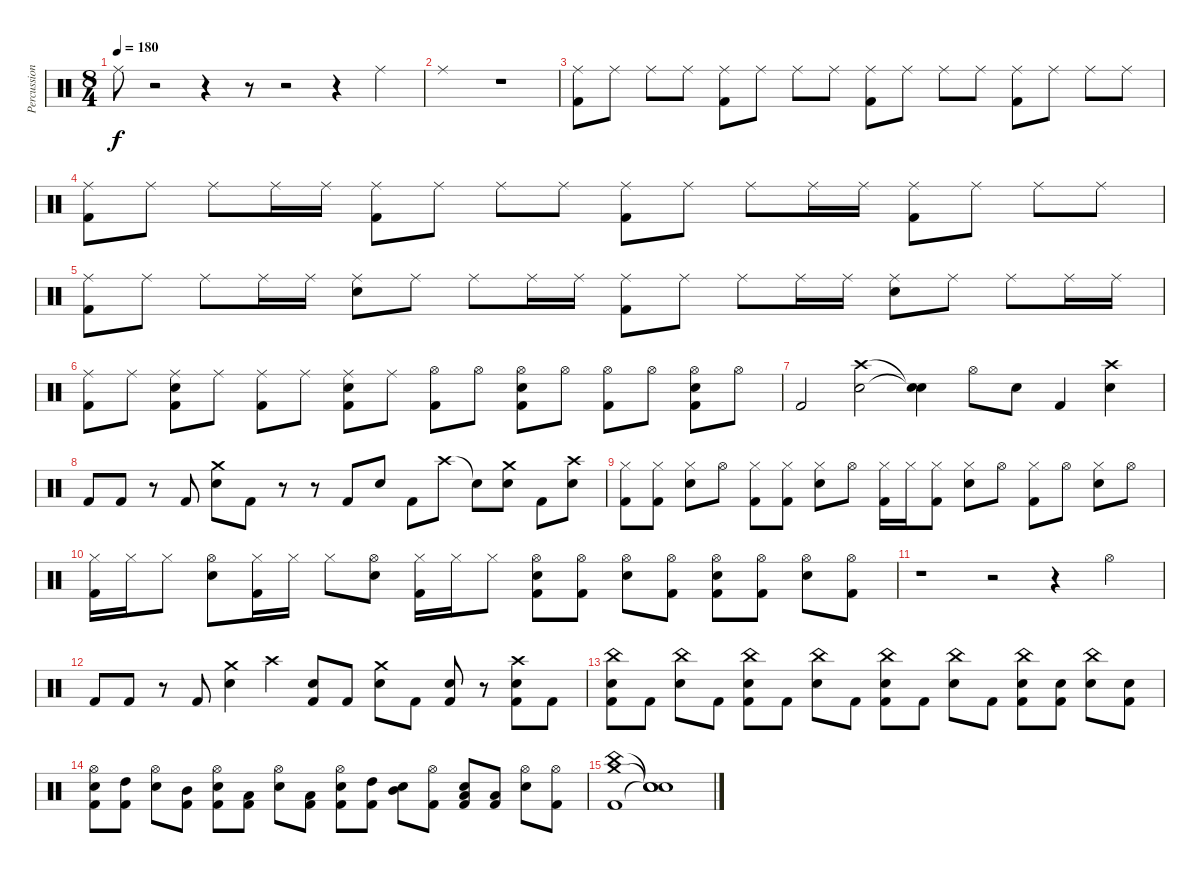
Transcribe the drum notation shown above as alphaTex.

\track ("Percussion" "Percussion") {instrument percussion}
\staff {score}
\articulation defaults
\ts (8 4)
\tempo 180
\clef neutral
\ks c "Ride (middle)".8{dy f}
r.2 r.4 r.8 r.2 r.4 "Ride (middle)".4 |
"Ride (middle)".1 r.1 |
("Kick (hit) 2" "Ride (middle)").8 "Ride (middle)".8 "Ride (middle)".8 "Ride (middle)".8 ("Kick (hit) 2" "Ride (middle)").8 "Ride (middle)".8 "Ride (middle)".8 "Ride (middle)".8 ("Kick (hit) 2" "Ride (middle)").8 "Ride (middle)".8 "Ride (middle)".8 "Ride (middle)".8 ("Kick (hit) 2" "Ride (middle)").8 "Ride (middle)".8 "Ride (middle)".8 "Ride (middle)".8 |
("Kick (hit) 2" "Ride (middle)").8 "Ride (middle)".8 "Ride (middle)".8 "Ride (middle)".16 "Ride (middle)".16 ("Kick (hit) 2" "Ride (middle)").8 "Ride (middle)".8 "Ride (middle)".8 "Ride (middle)".8 ("Kick (hit) 2" "Ride (middle)").8 "Ride (middle)".8 "Ride (middle)".8 "Ride (middle)".16 "Ride (middle)".16 ("Kick (hit) 2" "Ride (middle)").8 "Ride (middle)".8 "Ride (middle)".8 "Ride (middle)".8 |
("Kick (hit) 2" "Ride (middle)").8 "Ride (middle)".8 "Ride (middle)".8 "Ride (middle)".16 "Ride (middle)".16 ("Electric Snare (hit)" "Ride (middle)").8 "Ride (middle)".8 "Ride (middle)".8 "Ride (middle)".16 "Ride (middle)".16 ("Kick (hit) 2" "Ride (middle)").8 "Ride (middle)".8 "Ride (middle)".8 "Ride (middle)".16 "Ride (middle)".16 ("Electric Snare (hit)" "Ride (middle)").8 "Ride (middle)".8 "Ride (middle)".8 "Ride (middle)".16 "Ride (middle)".16 |
("Kick (hit) 2" "Ride (middle)").8 "Ride (middle)".8 ("Kick (hit) 2" "Ride (middle)" "Electric Snare (hit)").8 "Ride (middle)".8 ("Kick (hit) 2" "Ride (middle)").8 "Ride (middle)".8 ("Kick (hit) 2" "Ride (middle)" "Electric Snare (hit)").8 "Ride (middle)".8 ("Kick (hit) 2" "Hi-Hat (open)").8 "Hi-Hat (open)".8 ("Kick (hit) 2" "Hi-Hat (open)" "Electric Snare (hit)").8 "Hi-Hat (open)".8 ("Kick (hit) 2" "Hi-Hat (open)").8 "Hi-Hat (open)".8 ("Kick (hit) 2" "Hi-Hat (open)" "Electric Snare (hit)").8 "Hi-Hat (open)".8 |
"Kick (hit) 2".2 ("Electric Snare (hit)" "Crash high (hit)").2 ("Snare (hit)"{t} "Snare (hit)"{t}).4 "Hi-Hat (open)".8 "Electric Snare (hit)".8 "Kick (hit) 2".4 ("Electric Snare (hit)" "Crash high (hit)").4 |
"Kick (hit) 2".8 "Kick (hit) 2".8 r.8 "Kick (hit) 2".8 ("Electric Snare (hit)" "Crash medium (hit)").8 "Kick (hit) 2".8 r.8 r.8 "Kick (hit) 2".8 "Electric Snare (hit)".8 "Kick (hit) 2".8 "Crash high (hit)".8 "Snare (hit)"{t}.8 ("Crash medium (hit)" "Electric Snare (hit)").8 "Kick (hit) 2".8 ("Crash high (hit)" "Electric Snare (hit)").8 |
("Kick (hit) 2" "Hi-Hat (closed)").8 ("Kick (hit) 2" "Hi-Hat (closed)").8 ("Electric Snare (hit)" "Hi-Hat (closed)").8 "Hi-Hat (open)".8 ("Kick (hit) 2" "Hi-Hat (closed)").8 ("Kick (hit) 2" "Hi-Hat (closed)").8 ("Electric Snare (hit)" "Hi-Hat (closed)").8 "Hi-Hat (open)".8 ("Kick (hit) 2" "Hi-Hat (closed)").16 "Hi-Hat (closed)".16 ("Kick (hit) 2" "Hi-Hat (closed)").8 ("Electric Snare (hit)" "Hi-Hat (closed)").8 "Hi-Hat (open)".8 ("Kick (hit) 2" "Hi-Hat (closed)").8 "Hi-Hat (open)".8 ("Electric Snare (hit)" "Hi-Hat (closed)").8 "Hi-Hat (open)".8 |
("Kick (hit) 2" "Hi-Hat (closed)").16 "Hi-Hat (closed)".16 "Hi-Hat (closed)".8 ("Electric Snare (hit)" "Hi-Hat (open)").8 ("Kick (hit) 2" "Hi-Hat (closed)").16 "Hi-Hat (closed)".16 "Hi-Hat (closed)".8 ("Electric Snare (hit)" "Hi-Hat (open)").8 ("Kick (hit) 2" "Hi-Hat (closed)").16 "Hi-Hat (closed)".16 "Hi-Hat (closed)".8 ("Kick (hit) 2" "Electric Snare (hit)" "Hi-Hat (open)").8 ("Kick (hit) 2" "Hi-Hat (open)").8 ("Electric Snare (hit)" "Hi-Hat (open)").8 ("Kick (hit) 2" "Hi-Hat (open)").8 ("Kick (hit) 2" "Electric Snare (hit)" "Hi-Hat (open)").8 ("Kick (hit) 2" "Hi-Hat (open)").8 ("Electric Snare (hit)" "Hi-Hat (open)").8 ("Kick (hit) 2" "Hi-Hat (open)").8 |
r.1 r.2 r.4 "Hi-Hat (open)".4 |
"Kick (hit) 2".8 "Kick (hit) 2".8 r.8 "Kick (hit) 2".8 ("Electric Snare (hit)" "Crash medium (hit)").4 "Crash high (hit)".4 ("Kick (hit) 2" "Electric Snare (hit)").8 "Kick (hit) 2".8 ("Electric Snare (hit)" "Crash medium (hit)").8 "Kick (hit) 2".8 ("Kick (hit) 2" "Electric Snare (hit)").8 r.8 ("Kick (hit) 2" "Electric Snare (hit)" "Crash high (hit)").8 "Kick (hit) 2".8 |
("Kick (hit) 2" "Electric Snare (hit)" "China (hit)").8 "Kick (hit) 2".8 ("Electric Snare (hit)" "China (hit)").8 "Kick (hit) 2".8 ("Kick (hit) 2" "Electric Snare (hit)" "China (hit)").8 "Kick (hit) 2".8 ("Electric Snare (hit)" "China (hit)").8 "Kick (hit) 2".8 ("Kick (hit) 2" "Electric Snare (hit)" "China (hit)").8 "Kick (hit) 2".8 ("Electric Snare (hit)" "China (hit)").8 "Kick (hit) 2".8 ("Kick (hit) 2" "Electric Snare (hit)" "China (hit)").8 ("Kick (hit) 2" "Electric Snare (hit)").8 ("Electric Snare (hit)" "China (hit)").8 ("Kick (hit) 2" "Electric Snare (hit)").8 |
("Kick (hit) 2" "Electric Snare (hit)" "Hi-Hat (open)").8 ("Kick (hit) 2" "High Tom (hit)").8 ("Electric Snare (hit)" "Hi-Hat (open)").8 ("Kick (hit) 2" "Mid Tom (hit)").8 ("Kick (hit) 2" "Electric Snare (hit)" "Hi-Hat (open)").8 ("Kick (hit) 2" "Low Tom (hit)").8 ("Electric Snare (hit)" "Hi-Hat (open)").8 ("Kick (hit) 2" "Low Floor Tom (hit)").8 ("Kick (hit) 2" "Electric Snare (hit)" "Hi-Hat (open)").8 ("Kick (hit) 2" "High Tom (hit)").8 ("Electric Snare (hit)" "Mid Tom (hit)").8 ("Kick (hit) 2" "Hi-Hat (open)").8 ("Kick (hit) 2" "Electric Snare (hit)" "Low Tom (hit)").8 ("Kick (hit) 2" "Low Floor Tom (hit)").8 ("Electric Snare (hit)" "Hi-Hat (open)").8 ("Kick (hit) 2" "Hi-Hat (open)").8 |
("Kick (hit) 2" "China (hit)" "Crash medium (hit)").1 ("Snare (hit)"{t} "Snare (hit)"{t} "Snare (hit)"{t}).1
